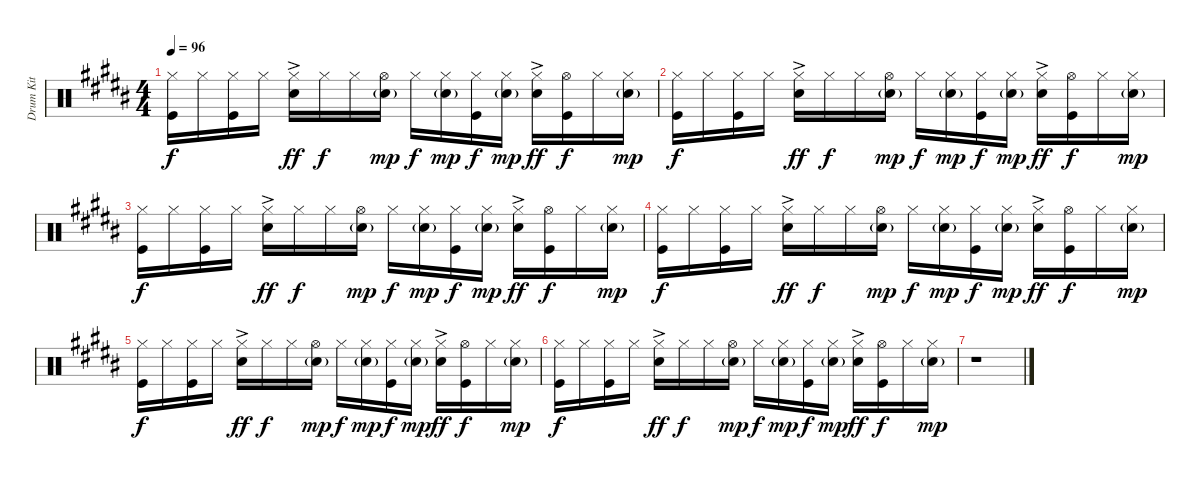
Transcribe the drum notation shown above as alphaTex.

\track ("Drum Kit" "Drum Kit") {instrument percussion}
\staff {score}
\articulation defaults
\ts (4 4)
\tempo 96
\clef neutral
\ks b
("Kick (hit)" "Hi-Hat (closed)").16{dy f} "Hi-Hat (closed)".16 ("Kick (hit)" "Hi-Hat (closed)").16 "Hi-Hat (closed)".16 ("Snare (hit) 2"{ac} "Hi-Hat (closed)").16{dy ff} "Hi-Hat (closed)".16{dy f} "Hi-Hat (closed)".16 ("Snare (hit) 2"{g} "Hi-Hat (open)").16{dy mp} "Hi-Hat (closed)".16{dy f} ("Snare (hit) 2"{g} "Hi-Hat (closed)").16{dy mp} ("Kick (hit)" "Hi-Hat (closed)").16{dy f} ("Snare (hit) 2"{g} "Hi-Hat (closed)").16{dy mp} ("Snare (hit) 2"{ac} "Hi-Hat (closed)").16{dy ff} ("Kick (hit)" "Hi-Hat (open)").16{dy f} "Hi-Hat (closed)".16 ("Snare (hit) 2"{g} "Hi-Hat (closed)").16{dy mp} |
("Kick (hit)" "Hi-Hat (closed)").16{dy f} "Hi-Hat (closed)".16 ("Kick (hit)" "Hi-Hat (closed)").16 "Hi-Hat (closed)".16 ("Snare (hit) 2"{ac} "Hi-Hat (closed)").16{dy ff} "Hi-Hat (closed)".16{dy f} "Hi-Hat (closed)".16 ("Snare (hit) 2"{g} "Hi-Hat (open)").16{dy mp} "Hi-Hat (closed)".16{dy f} ("Snare (hit) 2"{g} "Hi-Hat (closed)").16{dy mp} ("Kick (hit)" "Hi-Hat (closed)").16{dy f} ("Snare (hit) 2"{g} "Hi-Hat (closed)").16{dy mp} ("Snare (hit) 2"{ac} "Hi-Hat (closed)").16{dy ff} ("Kick (hit)" "Hi-Hat (open)").16{dy f} "Hi-Hat (closed)".16 ("Snare (hit) 2"{g} "Hi-Hat (closed)").16{dy mp} |
("Kick (hit)" "Hi-Hat (closed)").16{dy f volume 3} "Hi-Hat (closed)".16 ("Kick (hit)" "Hi-Hat (closed)").16 "Hi-Hat (closed)".16 ("Snare (hit) 2"{ac} "Hi-Hat (closed)").16{dy ff} "Hi-Hat (closed)".16{dy f} "Hi-Hat (closed)".16 ("Snare (hit) 2"{g} "Hi-Hat (open)").16{dy mp} "Hi-Hat (closed)".16{dy f} ("Snare (hit) 2"{g} "Hi-Hat (closed)").16{dy mp} ("Kick (hit)" "Hi-Hat (closed)").16{dy f} ("Snare (hit) 2"{g} "Hi-Hat (closed)").16{dy mp} ("Snare (hit) 2"{ac} "Hi-Hat (closed)").16{dy ff} ("Kick (hit)" "Hi-Hat (open)").16{dy f} "Hi-Hat (closed)".16 ("Snare (hit) 2"{g} "Hi-Hat (closed)").16{dy mp} |
("Kick (hit)" "Hi-Hat (closed)").16{dy f} "Hi-Hat (closed)".16 ("Kick (hit)" "Hi-Hat (closed)").16 "Hi-Hat (closed)".16 ("Snare (hit) 2"{ac} "Hi-Hat (closed)").16{dy ff} "Hi-Hat (closed)".16{dy f} "Hi-Hat (closed)".16 ("Snare (hit) 2"{g} "Hi-Hat (open)").16{dy mp} "Hi-Hat (closed)".16{dy f} ("Snare (hit) 2"{g} "Hi-Hat (closed)").16{dy mp} ("Kick (hit)" "Hi-Hat (closed)").16{dy f} ("Snare (hit) 2"{g} "Hi-Hat (closed)").16{dy mp} ("Snare (hit) 2"{ac} "Hi-Hat (closed)").16{dy ff} ("Kick (hit)" "Hi-Hat (open)").16{dy f} "Hi-Hat (closed)".16 ("Snare (hit) 2"{g} "Hi-Hat (closed)").16{dy mp} |
("Kick (hit)" "Hi-Hat (closed)").16{dy f} "Hi-Hat (closed)".16 ("Kick (hit)" "Hi-Hat (closed)").16 "Hi-Hat (closed)".16 ("Snare (hit) 2"{ac} "Hi-Hat (closed)").16{dy ff} "Hi-Hat (closed)".16{dy f} "Hi-Hat (closed)".16 ("Snare (hit) 2"{g} "Hi-Hat (open)").16{dy mp} "Hi-Hat (closed)".16{dy f} ("Snare (hit) 2"{g} "Hi-Hat (closed)").16{dy mp} ("Kick (hit)" "Hi-Hat (closed)").16{dy f} ("Snare (hit) 2"{g} "Hi-Hat (closed)").16{dy mp} ("Snare (hit) 2"{ac} "Hi-Hat (closed)").16{dy ff} ("Kick (hit)" "Hi-Hat (open)").16{dy f} "Hi-Hat (closed)".16 ("Snare (hit) 2"{g} "Hi-Hat (closed)").16{dy mp} |
("Kick (hit)" "Hi-Hat (closed)").16{dy f} "Hi-Hat (closed)".16 ("Kick (hit)" "Hi-Hat (closed)").16 "Hi-Hat (closed)".16 ("Snare (hit) 2"{ac} "Hi-Hat (closed)").16{dy ff} "Hi-Hat (closed)".16{dy f} "Hi-Hat (closed)".16 ("Snare (hit) 2"{g} "Hi-Hat (open)").16{dy mp} "Hi-Hat (closed)".16{dy f} ("Snare (hit) 2"{g} "Hi-Hat (closed)").16{dy mp} ("Kick (hit)" "Hi-Hat (closed)").16{dy f} ("Snare (hit) 2"{g} "Hi-Hat (closed)").16{dy mp} ("Snare (hit) 2"{ac} "Hi-Hat (closed)").16{dy ff} ("Kick (hit)" "Hi-Hat (open)").16{dy f} "Hi-Hat (closed)".16 ("Snare (hit) 2"{g} "Hi-Hat (closed)").16{dy mp} |
r.1
